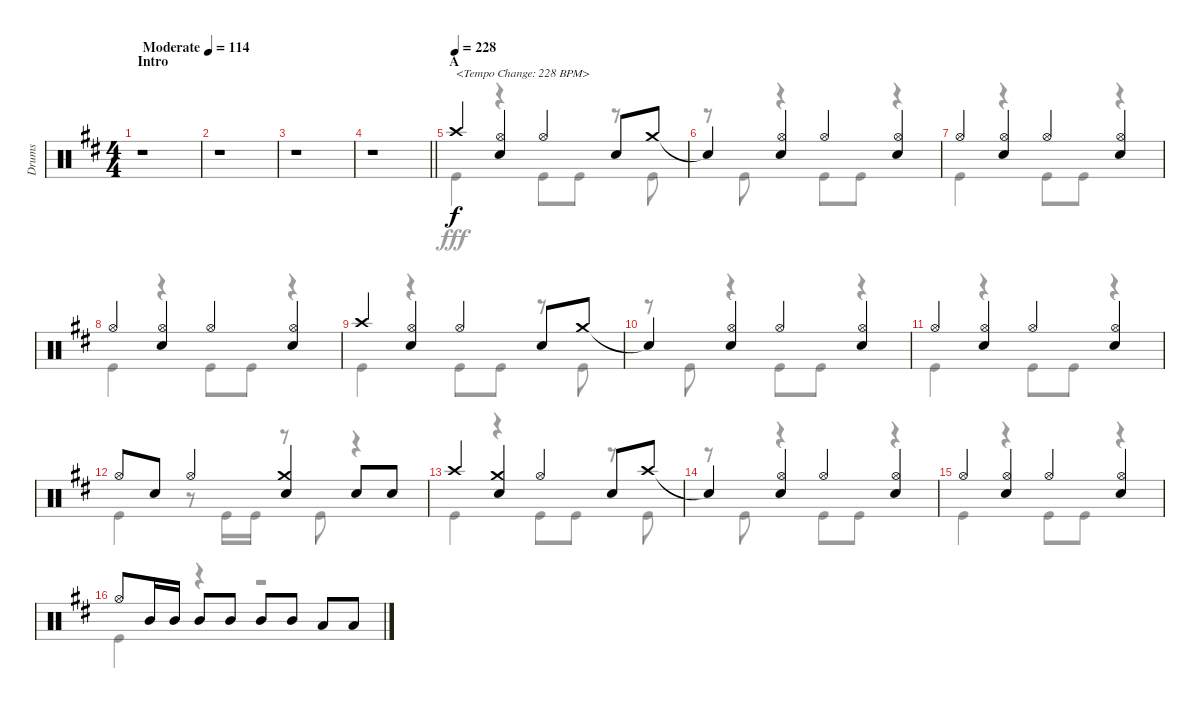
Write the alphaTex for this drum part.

\track ("Drums" "Drums") {instrument percussion}
\staff {score}
\articulation defaults
\voice
\ts (4 4)
\section ("" "Intro")
\tempo (114 "Moderate")
\clef neutral
\ks d
r.1{dy f} |
r.1 |
r.1 |
\barLineRight lightlight
r.1 |
\section ("" "A")
\tempo (228)
"Crash high (hit)".4{txt "<Tempo Change: 228 BPM>"} ("Hi-Hat (open)" "Snare (hit) 2").4 "Hi-Hat (open)".4 "Snare (hit) 2".8 "Crash medium (hit)".8 |
"Snare (hit)"{t}.4 ("Hi-Hat (open)" "Snare (hit) 2").4 "Hi-Hat (open)".4 ("Hi-Hat (open)" "Snare (hit) 2").4 |
"Hi-Hat (open)".4 ("Hi-Hat (open)" "Snare (hit) 2").4 "Hi-Hat (open)".4 ("Hi-Hat (open)" "Snare (hit) 2").4 |
"Hi-Hat (open)".4 ("Hi-Hat (open)" "Snare (hit) 2").4 "Hi-Hat (open)".4 ("Hi-Hat (open)" "Snare (hit) 2").4 |
"Crash high (hit)".4 ("Hi-Hat (open)" "Snare (hit) 2").4 "Hi-Hat (open)".4 "Snare (hit) 2".8 "Crash medium (hit)".8 |
"Snare (hit)"{t}.4 ("Hi-Hat (open)" "Snare (hit) 2").4 "Hi-Hat (open)".4 ("Hi-Hat (open)" "Snare (hit) 2").4 |
"Hi-Hat (open)".4 ("Hi-Hat (open)" "Snare (hit) 2").4 "Hi-Hat (open)".4 ("Hi-Hat (open)" "Snare (hit) 2").4 |
"Hi-Hat (open)".8 "Snare (hit) 2".8 "Hi-Hat (open)".4 ("Crash medium (hit)" "Snare (hit) 2").4 "Snare (hit) 2".8 "Snare (hit) 2".8 |
"Crash high (hit)".4 ("Crash medium (hit)" "Snare (hit) 2").4 "Hi-Hat (open)".4 "Snare (hit) 2".8 "Crash high (hit)".8 |
"Snare (hit)"{t}.4 ("Hi-Hat (open)" "Snare (hit) 2").4 "Hi-Hat (open)".4 ("Hi-Hat (open)" "Snare (hit) 2").4 |
"Hi-Hat (open)".4 ("Hi-Hat (open)" "Snare (hit) 2").4 "Hi-Hat (open)".4 ("Hi-Hat (open)" "Snare (hit) 2").4 |
"Hi-Hat (open)".8 "Mid Tom (hit)".16 "Mid Tom (hit)".16 "Mid Tom (hit)".8 "Mid Tom (hit)".8 "Mid Tom (hit)".8 "Mid Tom (hit)".8 "Low Tom (hit)".8 "Low Tom (hit)".8
\voice
\clef neutral
\ottava regular
\simile none
\ks d
r.1{dy fff} |
r.1 |
r.1 |
\barLineRight lightlight
r.1 |
"Kick (hit)".4 r.4 "Kick (hit)".8 "Kick (hit)".8 r.8 "Kick (hit)".8 |
r.8 "Kick (hit)".8 r.4 "Kick (hit)".8 "Kick (hit)".8 r.4 |
"Kick (hit)".4 r.4 "Kick (hit)".8 "Kick (hit)".8 r.4 |
"Kick (hit)".4 r.4 "Kick (hit)".8 "Kick (hit)".8 r.4 |
"Kick (hit)".4 r.4 "Kick (hit)".8 "Kick (hit)".8 r.8 "Kick (hit)".8 |
r.8 "Kick (hit)".8 r.4 "Kick (hit)".8 "Kick (hit)".8 r.4 |
"Kick (hit)".4 r.4 "Kick (hit)".8 "Kick (hit)".8 r.4 |
"Kick (hit)".4 r.8 "Kick (hit)".16 "Kick (hit)".16 r.8 "Kick (hit)".8 r.4 |
"Kick (hit)".4 r.4 "Kick (hit)".8 "Kick (hit)".8 r.8 "Kick (hit)".8 |
r.8 "Kick (hit)".8 r.4 "Kick (hit)".8 "Kick (hit)".8 r.4 |
"Kick (hit)".4 r.4 "Kick (hit)".8 "Kick (hit)".8 r.4 |
"Kick (hit)".4 r.4 r.2
